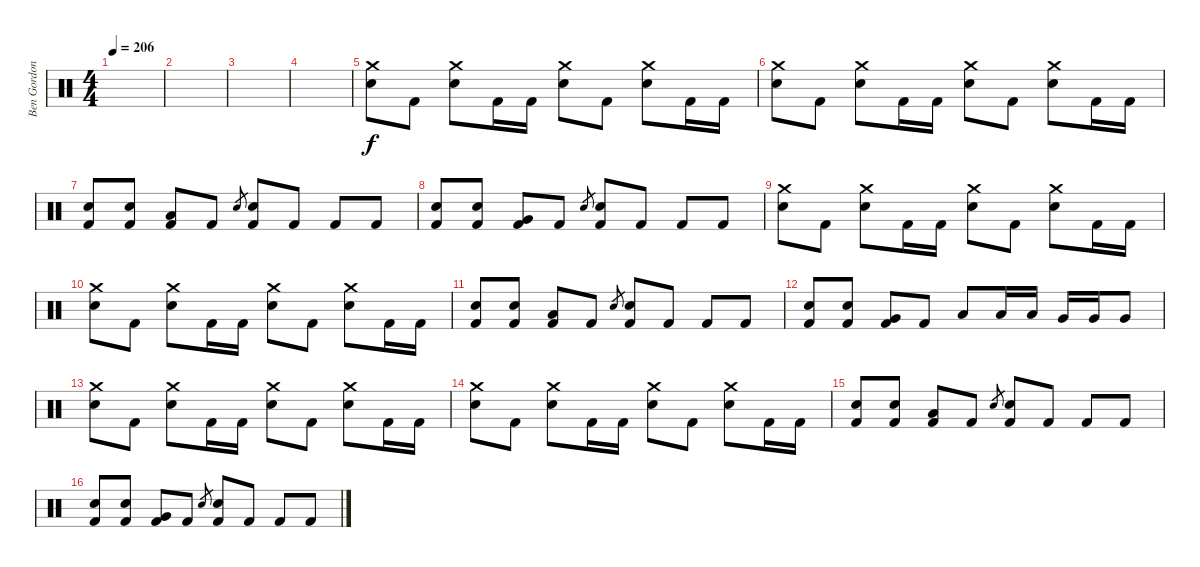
\track ("Ben Gordon" "Ben Gordon") {instrument percussion}
\staff {score}
\articulation defaults
\ts (4 4)
\tempo 206
\clef neutral
\ks c
|
|
|
|
("Crash medium (hit)" "Electric Snare (hit)").8 "Kick (hit) 2".8 ("Crash medium (hit)" "Electric Snare (hit)").8 "Kick (hit) 2".16 "Kick (hit) 2".16 ("Crash medium (hit)" "Electric Snare (hit)").8 "Kick (hit) 2".8 ("Crash medium (hit)" "Electric Snare (hit)").8 "Kick (hit) 2".16 "Kick (hit) 2".16 |
("Crash medium (hit)" "Electric Snare (hit)").8 "Kick (hit) 2".8 ("Crash medium (hit)" "Electric Snare (hit)").8 "Kick (hit) 2".16 "Kick (hit) 2".16 ("Crash medium (hit)" "Electric Snare (hit)").8 "Kick (hit) 2".8 ("Crash medium (hit)" "Electric Snare (hit)").8 "Kick (hit) 2".16 "Kick (hit) 2".16 |
("Electric Snare (hit)" "Kick (hit) 2").8 ("Electric Snare (hit)" "Kick (hit) 2").8 ("Low Tom (hit)" "Kick (hit) 2").8 "Kick (hit) 2".8 "Electric Snare (hit)".8{gr} ("Electric Snare (hit)" "Kick (hit) 2").8 "Kick (hit) 2".8 "Kick (hit) 2".8 "Kick (hit) 2".8 |
("Electric Snare (hit)" "Kick (hit) 2").8 ("Electric Snare (hit)" "Kick (hit) 2").8 ("Very Low Tom (hit)" "Kick (hit) 2").8 "Kick (hit) 2".8 "Electric Snare (hit)".8{gr} ("Electric Snare (hit)" "Kick (hit) 2").8 "Kick (hit) 2".8 "Kick (hit) 2".8 "Kick (hit) 2".8 |
("Crash medium (hit)" "Electric Snare (hit)").8 "Kick (hit) 2".8 ("Crash medium (hit)" "Electric Snare (hit)").8 "Kick (hit) 2".16 "Kick (hit) 2".16 ("Crash medium (hit)" "Electric Snare (hit)").8 "Kick (hit) 2".8 ("Crash medium (hit)" "Electric Snare (hit)").8 "Kick (hit) 2".16 "Kick (hit) 2".16 |
("Crash medium (hit)" "Electric Snare (hit)").8 "Kick (hit) 2".8 ("Crash medium (hit)" "Electric Snare (hit)").8 "Kick (hit) 2".16 "Kick (hit) 2".16 ("Crash medium (hit)" "Electric Snare (hit)").8 "Kick (hit) 2".8 ("Crash medium (hit)" "Electric Snare (hit)").8 "Kick (hit) 2".16 "Kick (hit) 2".16 |
("Electric Snare (hit)" "Kick (hit) 2").8 ("Electric Snare (hit)" "Kick (hit) 2").8 ("Low Tom (hit)" "Kick (hit) 2").8 "Kick (hit) 2".8 "Electric Snare (hit)".8{gr} ("Electric Snare (hit)" "Kick (hit) 2").8 "Kick (hit) 2".8 "Kick (hit) 2".8 "Kick (hit) 2".8 |
("Electric Snare (hit)" "Kick (hit) 2").8 ("Electric Snare (hit)" "Kick (hit) 2").8 ("Very Low Tom (hit)" "Kick (hit) 2").8 "Kick (hit) 2".8 "Low Tom (hit)".8 "Low Tom (hit)".16 "Low Tom (hit)".16 "Very Low Tom (hit)".16 "Very Low Tom (hit)".16 "Very Low Tom (hit)".8 |
("Crash medium (hit)" "Electric Snare (hit)").8 "Kick (hit) 2".8 ("Crash medium (hit)" "Electric Snare (hit)").8 "Kick (hit) 2".16 "Kick (hit) 2".16 ("Crash medium (hit)" "Electric Snare (hit)").8 "Kick (hit) 2".8 ("Crash medium (hit)" "Electric Snare (hit)").8 "Kick (hit) 2".16 "Kick (hit) 2".16 |
("Crash medium (hit)" "Electric Snare (hit)").8 "Kick (hit) 2".8 ("Crash medium (hit)" "Electric Snare (hit)").8 "Kick (hit) 2".16 "Kick (hit) 2".16 ("Crash medium (hit)" "Electric Snare (hit)").8 "Kick (hit) 2".8 ("Crash medium (hit)" "Electric Snare (hit)").8 "Kick (hit) 2".16 "Kick (hit) 2".16 |
("Electric Snare (hit)" "Kick (hit) 2").8 ("Electric Snare (hit)" "Kick (hit) 2").8 ("Low Tom (hit)" "Kick (hit) 2").8 "Kick (hit) 2".8 "Electric Snare (hit)".8{gr} ("Electric Snare (hit)" "Kick (hit) 2").8 "Kick (hit) 2".8 "Kick (hit) 2".8 "Kick (hit) 2".8 |
("Electric Snare (hit)" "Kick (hit) 2").8 ("Electric Snare (hit)" "Kick (hit) 2").8 ("Very Low Tom (hit)" "Kick (hit) 2").8 "Kick (hit) 2".8 "Electric Snare (hit)".8{gr} ("Electric Snare (hit)" "Kick (hit) 2").8 "Kick (hit) 2".8 "Kick (hit) 2".8 "Kick (hit) 2".8
